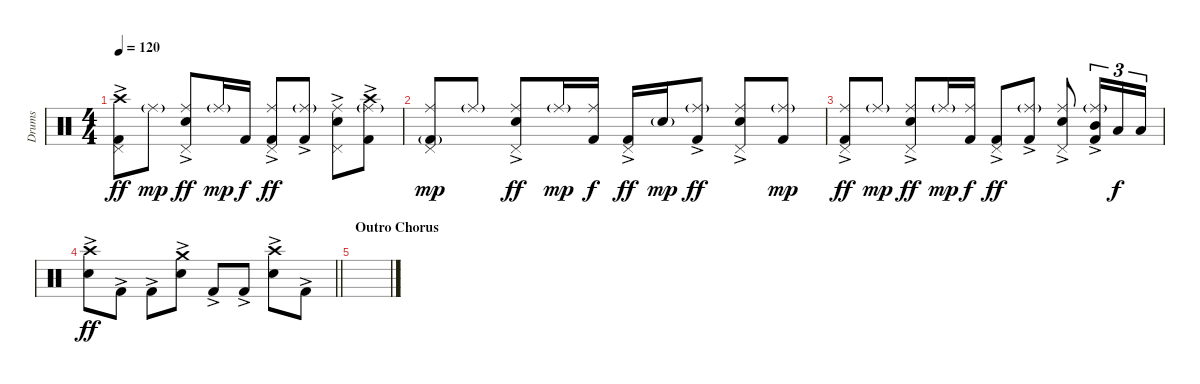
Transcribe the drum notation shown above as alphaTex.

\track ("Drums" "Drums") {instrument percussion}
\staff {score}
\articulation defaults
\ts (4 4)
\tempo 120
\clef neutral
\ks c
("Crash high (hit)" "Pedal Hi-Hat (hit)" "Kick (hit) 2"{ac}).8{dy ff} "Ride (middle)"{g}.8{dy mp} ("Ride (middle)" "Pedal Hi-Hat (hit)" "Snare (hit) 2"{ac}).8{dy ff} "Ride (middle)"{g}.16{dy mp} "Kick (hit) 2".16{dy f} ("Ride (middle)" "Pedal Hi-Hat (hit)" "Kick (hit) 2"{ac}).8{dy ff} ("Ride (middle)"{g} "Kick (hit) 2"{ac}).8 ("Ride (middle)" "Pedal Hi-Hat (hit)" "Snare (hit) 2"{ac}).8 ("Ride (middle)"{g} "Crash high (hit)" "Kick (hit) 2"{ac}).8 |
("Ride (middle)" "Pedal Hi-Hat (hit)" "Kick (hit) 2"{g}).8{dy mp} "Ride (middle)"{g}.8 ("Ride (middle)" "Pedal Hi-Hat (hit)" "Snare (hit) 2"{ac}).8{dy ff} "Ride (middle)"{g}.16{dy mp} ("Ride (middle)" "Kick (hit) 2").16{dy f} ("Pedal Hi-Hat (hit)" "Kick (hit) 2"{ac}).16{dy ff} "Snare (hit) 2"{g}.16{dy mp} ("Ride (middle)"{g} "Kick (hit) 2"{ac}).8{dy ff} ("Ride (middle)" "Pedal Hi-Hat (hit)" "Snare (hit) 2"{ac}).8 ("Ride (middle)"{g} "Kick (hit) 2").8{dy mp} |
("Ride (middle)" "Pedal Hi-Hat (hit)" "Kick (hit) 2"{ac}).8{dy ff} "Ride (middle)"{g}.8{dy mp} ("Ride (middle)" "Pedal Hi-Hat (hit)" "Snare (hit) 2"{ac}).8{dy ff} "Ride (middle)"{g}.16{dy mp} ("Ride (middle)" "Kick (hit) 2").16{dy f} ("Pedal Hi-Hat (hit)" "Kick (hit) 2"{ac}).8{dy ff} ("Ride (middle)"{g} "Kick (hit) 2"{ac}).8 ("Ride (middle)" "Pedal Hi-Hat (hit)" "Snare (hit) 2"{ac}).8 ("Ride (middle)"{g} "Mid Tom (hit)" "Kick (hit) 2"{ac}).16{tu (3 2)} "Low Tom (hit)".16{tu (3 2) dy f} "Low Floor Tom (hit)".16{tu (3 2)} |
\barLineRight lightlight
("Crash high (hit)" "Snare (hit) 2"{ac}).8{dy ff} "Kick (hit) 2"{ac}.8 "Kick (hit) 2"{ac}.8 ("Crash medium (hit)" "Snare (hit) 2"{ac}).8 "Kick (hit) 2"{ac}.8 "Kick (hit) 2"{ac}.8 ("Crash high (hit)" "Snare (hit) 2"{ac}).8 "Kick (hit) 2"{ac}.8 |
\section ("" "Outro Chorus")
